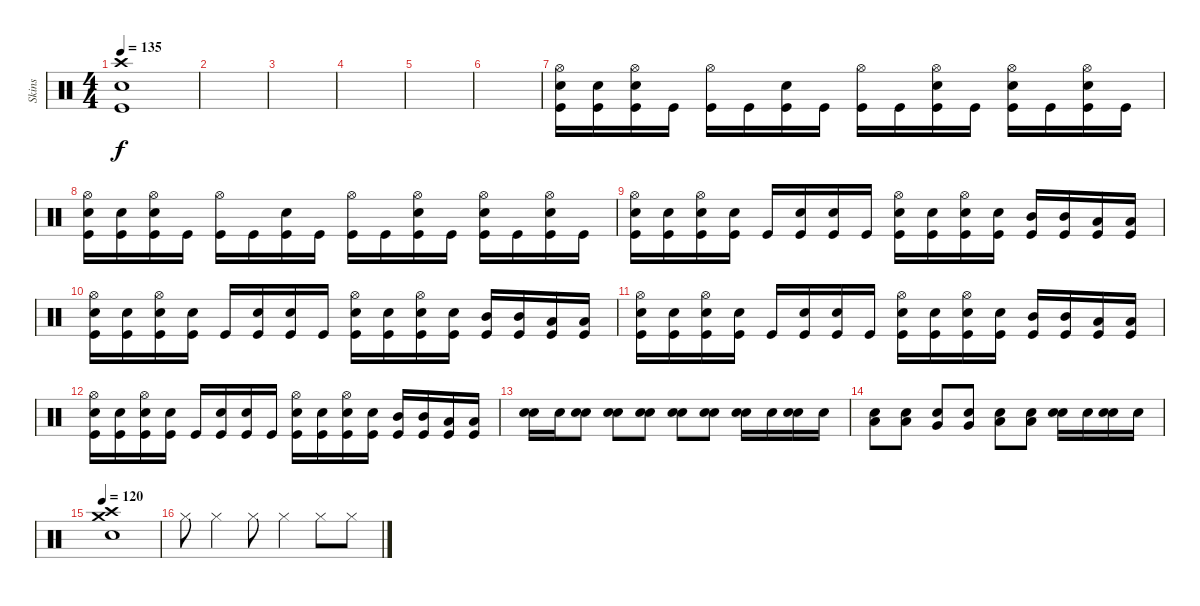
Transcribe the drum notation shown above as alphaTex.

\track ("Skins" "Skins") {instrument percussion}
\staff {score}
\articulation defaults
\ts (4 4)
\tempo 135
\clef neutral
\ks c
("Kick (hit)" "Electric Snare (hit)" "Crash high (hit)").1{dy f} |
|
|
|
|
|
("Kick (hit)" "Electric Snare (hit)" "Hi-Hat (open)").16 ("Kick (hit)" "Electric Snare (hit)").16 ("Kick (hit)" "Electric Snare (hit)" "Hi-Hat (open)").16 "Kick (hit)".16 ("Kick (hit)" "Hi-Hat (open)").16 "Kick (hit)".16 ("Kick (hit)" "Electric Snare (hit)").16 "Kick (hit)".16 ("Kick (hit)" "Hi-Hat (open)").16 "Kick (hit)".16 ("Kick (hit)" "Electric Snare (hit)" "Hi-Hat (open)").16 "Kick (hit)".16 ("Kick (hit)" "Electric Snare (hit)" "Hi-Hat (open)").16 "Kick (hit)".16 ("Kick (hit)" "Electric Snare (hit)" "Hi-Hat (open)").16 "Kick (hit)".16 |
("Kick (hit)" "Electric Snare (hit)" "Hi-Hat (open)").16 ("Kick (hit)" "Electric Snare (hit)").16 ("Kick (hit)" "Electric Snare (hit)" "Hi-Hat (open)").16 "Kick (hit)".16 ("Kick (hit)" "Hi-Hat (open)").16 "Kick (hit)".16 ("Kick (hit)" "Electric Snare (hit)").16 "Kick (hit)".16 ("Kick (hit)" "Hi-Hat (open)").16 "Kick (hit)".16 ("Kick (hit)" "Electric Snare (hit)" "Hi-Hat (open)").16 "Kick (hit)".16 ("Kick (hit)" "Electric Snare (hit)" "Hi-Hat (open)").16 "Kick (hit)".16 ("Kick (hit)" "Electric Snare (hit)" "Hi-Hat (open)").16 "Kick (hit)".16 |
("Kick (hit)" "Electric Snare (hit)" "Hi-Hat (open)").16 ("Kick (hit)" "Electric Snare (hit)").16 ("Kick (hit)" "Electric Snare (hit)" "Hi-Hat (open)").16 ("Kick (hit)" "Electric Snare (hit)").16 "Kick (hit)".16 ("Kick (hit)" "Electric Snare (hit)").16 ("Kick (hit)" "Electric Snare (hit)").16 "Kick (hit)".16 ("Kick (hit)" "Electric Snare (hit)" "Hi-Hat (open)").16 ("Kick (hit)" "Electric Snare (hit)").16 ("Kick (hit)" "Electric Snare (hit)" "Hi-Hat (open)").16 ("Kick (hit)" "Electric Snare (hit)").16 ("Kick (hit)" "Mid Tom (hit)").16 ("Kick (hit)" "Mid Tom (hit)").16 ("Kick (hit)" "Low Tom (hit)").16 ("Kick (hit)" "Low Tom (hit)").16 |
("Kick (hit)" "Electric Snare (hit)" "Hi-Hat (open)").16 ("Kick (hit)" "Electric Snare (hit)").16 ("Kick (hit)" "Electric Snare (hit)" "Hi-Hat (open)").16 ("Kick (hit)" "Electric Snare (hit)").16 "Kick (hit)".16 ("Kick (hit)" "Electric Snare (hit)").16 ("Kick (hit)" "Electric Snare (hit)").16 "Kick (hit)".16 ("Kick (hit)" "Electric Snare (hit)" "Hi-Hat (open)").16 ("Kick (hit)" "Electric Snare (hit)").16 ("Kick (hit)" "Electric Snare (hit)" "Hi-Hat (open)").16 ("Kick (hit)" "Electric Snare (hit)").16 ("Kick (hit)" "Mid Tom (hit)").16 ("Kick (hit)" "Mid Tom (hit)").16 ("Kick (hit)" "Low Tom (hit)").16 ("Kick (hit)" "Low Tom (hit)").16 |
("Kick (hit)" "Electric Snare (hit)" "Hi-Hat (open)").16 ("Kick (hit)" "Electric Snare (hit)").16 ("Kick (hit)" "Electric Snare (hit)" "Hi-Hat (open)").16 ("Kick (hit)" "Electric Snare (hit)").16 "Kick (hit)".16 ("Kick (hit)" "Electric Snare (hit)").16 ("Kick (hit)" "Electric Snare (hit)").16 "Kick (hit)".16 ("Kick (hit)" "Electric Snare (hit)" "Hi-Hat (open)").16 ("Kick (hit)" "Electric Snare (hit)").16 ("Kick (hit)" "Electric Snare (hit)" "Hi-Hat (open)").16 ("Kick (hit)" "Electric Snare (hit)").16 ("Kick (hit)" "Mid Tom (hit)").16 ("Kick (hit)" "Mid Tom (hit)").16 ("Kick (hit)" "Low Tom (hit)").16 ("Kick (hit)" "Low Tom (hit)").16 |
("Kick (hit)" "Electric Snare (hit)" "Hi-Hat (open)").16 ("Kick (hit)" "Electric Snare (hit)").16 ("Kick (hit)" "Electric Snare (hit)" "Hi-Hat (open)").16 ("Kick (hit)" "Electric Snare (hit)").16 "Kick (hit)".16 ("Kick (hit)" "Electric Snare (hit)").16 ("Kick (hit)" "Electric Snare (hit)").16 "Kick (hit)".16 ("Kick (hit)" "Electric Snare (hit)" "Hi-Hat (open)").16 ("Kick (hit)" "Electric Snare (hit)").16 ("Kick (hit)" "Electric Snare (hit)" "Hi-Hat (open)").16 ("Kick (hit)" "Electric Snare (hit)").16 ("Kick (hit)" "Mid Tom (hit)").16 ("Kick (hit)" "Mid Tom (hit)").16 ("Kick (hit)" "Low Tom (hit)").16 ("Kick (hit)" "Low Tom (hit)").16 |
("Electric Snare (hit)" "Snare (hit) 2").16 "Snare (hit) 2".16 ("Electric Snare (hit)" "Snare (hit) 2").8 ("Electric Snare (hit)" "Snare (hit) 2").8 ("Electric Snare (hit)" "Snare (hit) 2").8 ("Electric Snare (hit)" "Snare (hit) 2").8 ("Electric Snare (hit)" "Snare (hit) 2").8 ("Electric Snare (hit)" "Snare (hit) 2").16 "Snare (hit) 2".16 ("Electric Snare (hit)" "Snare (hit) 2").16 "Snare (hit) 2".16 |
("Electric Snare (hit)" "Low Tom (hit)").8 ("Electric Snare (hit)" "Low Tom (hit)").8 ("Electric Snare (hit)" "Very Low Tom (hit)").8 ("Electric Snare (hit)" "Very Low Tom (hit)").8 ("Electric Snare (hit)" "Low Floor Tom (hit)").8 ("Electric Snare (hit)" "Low Floor Tom (hit)").8 ("Electric Snare (hit)" "Snare (hit) 2").16 "Snare (hit) 2".16 ("Electric Snare (hit)" "Snare (hit) 2").16 "Snare (hit) 2".16 |
\tempo 120
("Crash high (hit)" "Crash medium (hit)" "Electric Snare (hit)").1 |
"Hi-Hat (closed)".8 "Hi-Hat (closed)".4 "Hi-Hat (closed)".8 "Hi-Hat (closed)".4 "Hi-Hat (closed)".8 "Hi-Hat (closed)".8
